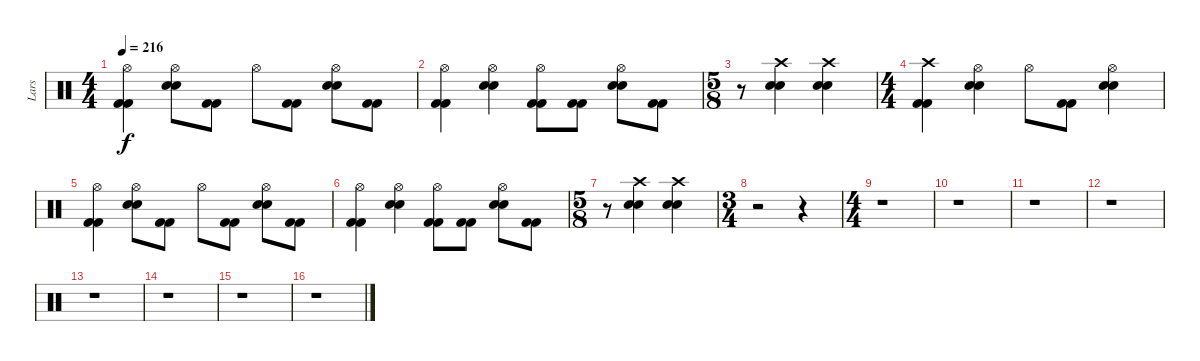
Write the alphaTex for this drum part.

\track ("Lars" "Lars") {instrument percussion}
\staff {score}
\articulation defaults
\ts (4 4)
\tempo 216
\clef neutral
\ks c
("Hi-Hat (open)" "Kick (hit) 2" "Kick (hit) 2").4{dy f} ("Hi-Hat (open)" "Electric Snare (hit)" "Electric Snare (hit)").8 ("Kick (hit) 2" "Kick (hit) 2").8 "Hi-Hat (open)".8 ("Kick (hit) 2" "Kick (hit) 2").8 ("Hi-Hat (open)" "Electric Snare (hit)" "Electric Snare (hit)").8 ("Kick (hit) 2" "Kick (hit) 2").8 |
("Hi-Hat (open)" "Kick (hit) 2" "Kick (hit) 2").4 ("Hi-Hat (open)" "Electric Snare (hit)" "Electric Snare (hit)").4 ("Hi-Hat (open)" "Kick (hit) 2" "Kick (hit) 2").8 ("Kick (hit) 2" "Kick (hit) 2").8 ("Hi-Hat (open)" "Electric Snare (hit)" "Electric Snare (hit)").8 ("Kick (hit) 2" "Kick (hit) 2").8 |
\ts (5 8)
r.8 ("Crash high (hit)" "Electric Snare (hit)" "Electric Snare (hit)").4 ("Crash high (hit)" "Electric Snare (hit)" "Electric Snare (hit)").4 |
\ts (4 4)
("Crash high (hit)" "Kick (hit) 2" "Kick (hit) 2").4 ("Hi-Hat (open)" "Electric Snare (hit)" "Electric Snare (hit)").4 "Hi-Hat (open)".8 ("Kick (hit) 2" "Kick (hit) 2").8 ("Hi-Hat (open)" "Electric Snare (hit)" "Electric Snare (hit)").4 |
("Hi-Hat (open)" "Kick (hit) 2" "Kick (hit) 2").4 ("Hi-Hat (open)" "Electric Snare (hit)" "Electric Snare (hit)").8 ("Kick (hit) 2" "Kick (hit) 2").8 "Hi-Hat (open)".8 ("Kick (hit) 2" "Kick (hit) 2").8 ("Hi-Hat (open)" "Electric Snare (hit)" "Electric Snare (hit)").8 ("Kick (hit) 2" "Kick (hit) 2").8 |
("Hi-Hat (open)" "Kick (hit) 2" "Kick (hit) 2").4 ("Hi-Hat (open)" "Electric Snare (hit)" "Electric Snare (hit)").4 ("Hi-Hat (open)" "Kick (hit) 2" "Kick (hit) 2").8 ("Kick (hit) 2" "Kick (hit) 2").8 ("Hi-Hat (open)" "Electric Snare (hit)" "Electric Snare (hit)").8 ("Kick (hit) 2" "Kick (hit) 2").8 |
\ts (5 8)
r.8 ("Crash high (hit)" "Electric Snare (hit)" "Electric Snare (hit)").4 ("Crash high (hit)" "Electric Snare (hit)" "Electric Snare (hit)").4 |
\ts (3 4)
r.2 r.4 |
\ts (4 4)
r.1 |
r.1 |
r.1 |
r.1 |
r.1 |
r.1 |
r.1 |
r.1
